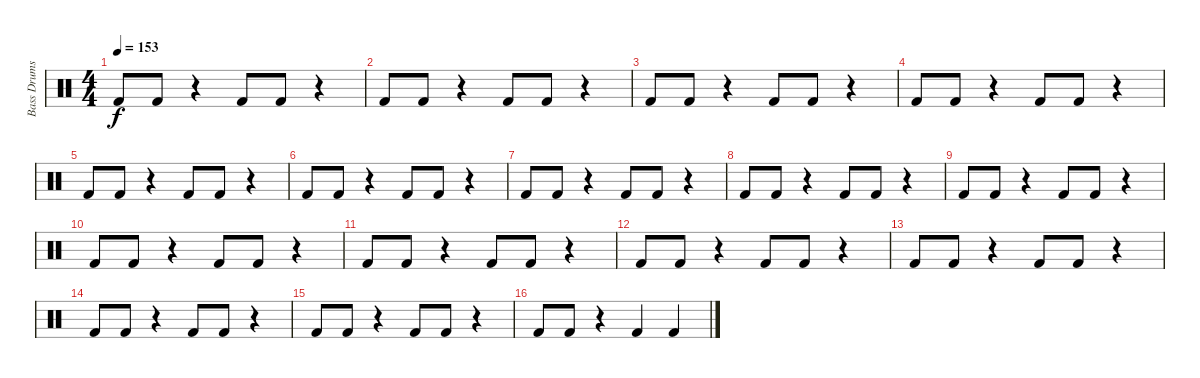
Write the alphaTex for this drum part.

\track ("Bass Drums" "Bass Drums") {instrument percussion}
\staff {score}
\articulation defaults
\ts (4 4)
\tempo 153
\clef neutral
\ks c "Kick (hit) 2".8{dy f} "Kick (hit) 2".8
r.4 "Kick (hit) 2".8 "Kick (hit) 2".8 r.4 |
"Kick (hit) 2".8 "Kick (hit) 2".8 r.4 "Kick (hit) 2".8 "Kick (hit) 2".8 r.4 |
"Kick (hit) 2".8 "Kick (hit) 2".8 r.4 "Kick (hit) 2".8 "Kick (hit) 2".8 r.4 |
"Kick (hit) 2".8 "Kick (hit) 2".8 r.4 "Kick (hit) 2".8 "Kick (hit) 2".8 r.4 |
"Kick (hit) 2".8 "Kick (hit) 2".8 r.4 "Kick (hit) 2".8 "Kick (hit) 2".8 r.4 |
"Kick (hit) 2".8 "Kick (hit) 2".8 r.4 "Kick (hit) 2".8 "Kick (hit) 2".8 r.4 |
"Kick (hit) 2".8 "Kick (hit) 2".8 r.4 "Kick (hit) 2".8 "Kick (hit) 2".8 r.4 |
"Kick (hit) 2".8 "Kick (hit) 2".8 r.4 "Kick (hit) 2".8 "Kick (hit) 2".8 r.4 |
"Kick (hit) 2".8 "Kick (hit) 2".8 r.4 "Kick (hit) 2".8 "Kick (hit) 2".8 r.4 |
"Kick (hit) 2".8 "Kick (hit) 2".8 r.4 "Kick (hit) 2".8 "Kick (hit) 2".8 r.4 |
"Kick (hit) 2".8 "Kick (hit) 2".8 r.4 "Kick (hit) 2".8 "Kick (hit) 2".8 r.4 |
"Kick (hit) 2".8 "Kick (hit) 2".8 r.4 "Kick (hit) 2".8 "Kick (hit) 2".8 r.4 |
"Kick (hit) 2".8 "Kick (hit) 2".8 r.4 "Kick (hit) 2".8 "Kick (hit) 2".8 r.4 |
"Kick (hit) 2".8 "Kick (hit) 2".8 r.4 "Kick (hit) 2".8 "Kick (hit) 2".8 r.4 |
"Kick (hit) 2".8 "Kick (hit) 2".8 r.4 "Kick (hit) 2".8 "Kick (hit) 2".8 r.4 |
"Kick (hit) 2".8 "Kick (hit) 2".8 r.4 "Kick (hit) 2".4 "Kick (hit) 2".4
